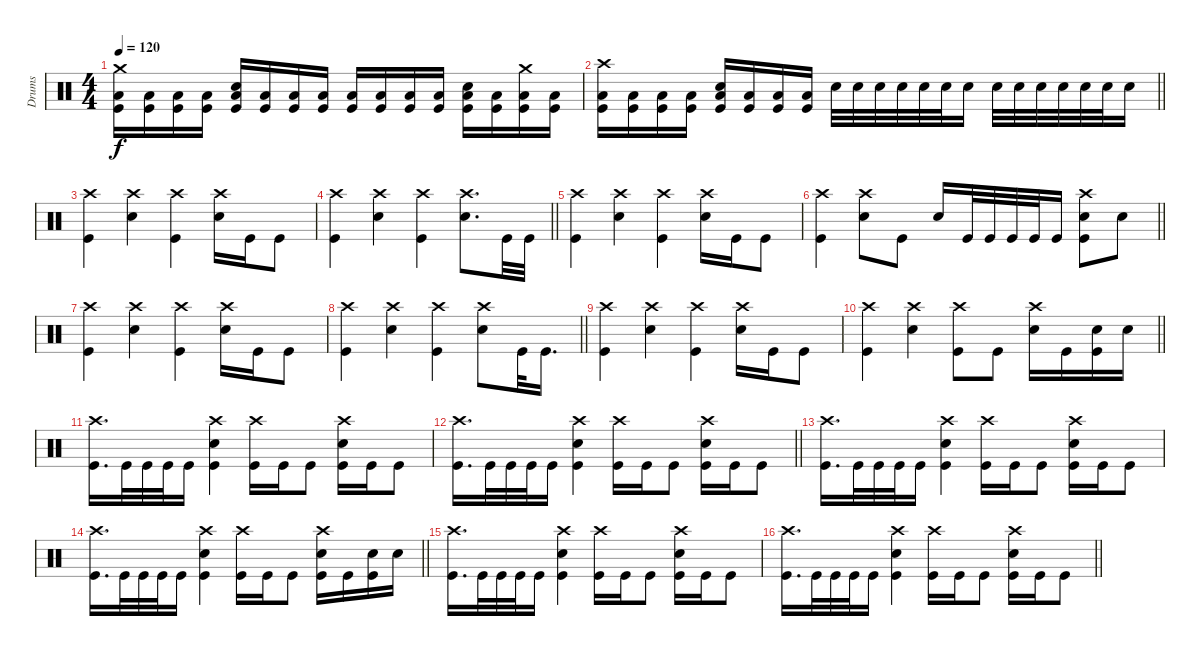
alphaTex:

\track ("Drums" "Drums") {instrument percussion}
\staff {score}
\articulation defaults
\ts (4 4)
\tempo 120
\clef neutral
\ks c
("Crash medium (hit)" "Low Floor Tom (hit)" "Kick (hit)").16{dy f} ("Low Floor Tom (hit)" "Kick (hit)").16 ("Low Floor Tom (hit)" "Kick (hit)").16 ("Low Floor Tom (hit)" "Kick (hit)").16 ("Snare (hit) 2" "Low Floor Tom (hit)" "Kick (hit)").16 ("Low Floor Tom (hit)" "Kick (hit)").16 ("Low Floor Tom (hit)" "Kick (hit)").16 ("Low Floor Tom (hit)" "Kick (hit)").16 ("Low Floor Tom (hit)" "Kick (hit)").16 ("Low Floor Tom (hit)" "Kick (hit)").16 ("Low Floor Tom (hit)" "Kick (hit)").16 ("Low Floor Tom (hit)" "Kick (hit)").16 ("Snare (hit) 2" "Low Floor Tom (hit)" "Kick (hit)").16 ("Low Floor Tom (hit)" "Kick (hit)").16 ("Crash medium (hit)" "Low Floor Tom (hit)" "Kick (hit)").16 ("Low Floor Tom (hit)" "Kick (hit)").16 |
\barLineRight lightlight
("Crash high (hit)" "Low Floor Tom (hit)" "Kick (hit)").16 ("Low Floor Tom (hit)" "Kick (hit)").16 ("Low Floor Tom (hit)" "Kick (hit)").16 ("Low Floor Tom (hit)" "Kick (hit)").16 ("Snare (hit) 2" "Low Floor Tom (hit)" "Kick (hit)").16 ("Low Floor Tom (hit)" "Kick (hit)").16 ("Low Floor Tom (hit)" "Kick (hit)").16 ("Low Floor Tom (hit)" "Kick (hit)").16 "Snare (hit) 2".32 "Snare (hit) 2".32 "Snare (hit) 2".32 "Snare (hit) 2".32 "Snare (hit) 2".32 "Snare (hit) 2".32 "Snare (hit) 2".16 "Snare (hit) 2".32 "Snare (hit) 2".32 "Snare (hit) 2".32 "Snare (hit) 2".32 "Snare (hit) 2".32 "Snare (hit) 2".32 "Snare (hit) 2".16 |
("Crash high (hit)" "Kick (hit)").4 ("Crash high (hit)" "Snare (hit) 2").4 ("Crash high (hit)" "Kick (hit)").4 ("Crash high (hit)" "Snare (hit) 2").16 "Kick (hit)".16 "Kick (hit)".8 |
\barLineRight lightlight
("Crash high (hit)" "Kick (hit)").4 ("Crash high (hit)" "Snare (hit) 2").4 ("Crash high (hit)" "Kick (hit)").4 ("Crash high (hit)" "Snare (hit) 2").8{d} "Kick (hit)".32 "Kick (hit)".32 |
("Crash high (hit)" "Kick (hit)").4 ("Crash high (hit)" "Snare (hit) 2").4 ("Crash high (hit)" "Kick (hit)").4 ("Crash high (hit)" "Snare (hit) 2").16 "Kick (hit)".16 "Kick (hit)".8 |
\barLineRight lightlight
("Crash high (hit)" "Kick (hit)").4 ("Crash high (hit)" "Snare (hit) 2").8 "Kick (hit)".8 "Snare (hit) 2".16 "Kick (hit)".32 "Kick (hit)".32 "Kick (hit)".32 "Kick (hit)".32 "Kick (hit)".16 ("Crash high (hit)" "Snare (hit) 2" "Kick (hit)").8 "Snare (hit) 2".8 |
("Crash high (hit)" "Kick (hit)").4 ("Crash high (hit)" "Snare (hit) 2").4 ("Crash high (hit)" "Kick (hit)").4 ("Crash high (hit)" "Snare (hit) 2").16 "Kick (hit)".16 "Kick (hit)".8 |
\barLineRight lightlight
("Crash high (hit)" "Kick (hit)").4 ("Crash high (hit)" "Snare (hit) 2").4 ("Crash high (hit)" "Kick (hit)").4 ("Crash high (hit)" "Snare (hit) 2").8 "Kick (hit)".32 "Kick (hit)".16{d} |
("Crash high (hit)" "Kick (hit)").4 ("Crash high (hit)" "Snare (hit) 2").4 ("Crash high (hit)" "Kick (hit)").4 ("Crash high (hit)" "Snare (hit) 2").16 "Kick (hit)".16 "Kick (hit)".8 |
\barLineRight lightlight
("Crash high (hit)" "Kick (hit)").4 ("Crash high (hit)" "Snare (hit) 2").4 ("Crash high (hit)" "Kick (hit)").8 "Kick (hit)".8 ("Crash high (hit)" "Snare (hit) 2").16 "Kick (hit)".16 ("Snare (hit) 2" "Kick (hit)").16 "Snare (hit) 2".16 |
("Crash high (hit)" "Kick (hit)").16{d} "Kick (hit)".32 "Kick (hit)".32 "Kick (hit)".32 "Kick (hit)".16 ("Crash high (hit)" "Snare (hit) 2" "Kick (hit)").4 ("Crash high (hit)" "Kick (hit)").16 "Kick (hit)".16 "Kick (hit)".8 ("Crash high (hit)" "Snare (hit) 2" "Kick (hit)").16 "Kick (hit)".16 "Kick (hit)".8 |
\barLineRight lightlight
("Crash high (hit)" "Kick (hit)").16{d} "Kick (hit)".32 "Kick (hit)".32 "Kick (hit)".32 "Kick (hit)".16 ("Crash high (hit)" "Snare (hit) 2" "Kick (hit)").4 ("Crash high (hit)" "Kick (hit)").16 "Kick (hit)".16 "Kick (hit)".8 ("Crash high (hit)" "Snare (hit) 2" "Kick (hit)").16 "Kick (hit)".16 "Kick (hit)".8 |
("Crash high (hit)" "Kick (hit)").16{d} "Kick (hit)".32 "Kick (hit)".32 "Kick (hit)".32 "Kick (hit)".16 ("Crash high (hit)" "Snare (hit) 2" "Kick (hit)").4 ("Crash high (hit)" "Kick (hit)").16 "Kick (hit)".16 "Kick (hit)".8 ("Crash high (hit)" "Snare (hit) 2" "Kick (hit)").16 "Kick (hit)".16 "Kick (hit)".8 |
\barLineRight lightlight
("Crash high (hit)" "Kick (hit)").16{d} "Kick (hit)".32 "Kick (hit)".32 "Kick (hit)".32 "Kick (hit)".16 ("Crash high (hit)" "Snare (hit) 2" "Kick (hit)").4 ("Crash high (hit)" "Kick (hit)").16 "Kick (hit)".16 "Kick (hit)".8 ("Crash high (hit)" "Snare (hit) 2" "Kick (hit)").16 "Kick (hit)".16 ("Snare (hit) 2" "Kick (hit)").16 "Snare (hit) 2".16 |
("Crash high (hit)" "Kick (hit)").16{d} "Kick (hit)".32 "Kick (hit)".32 "Kick (hit)".32 "Kick (hit)".16 ("Crash high (hit)" "Snare (hit) 2" "Kick (hit)").4 ("Crash high (hit)" "Kick (hit)").16 "Kick (hit)".16 "Kick (hit)".8 ("Crash high (hit)" "Snare (hit) 2" "Kick (hit)").16 "Kick (hit)".16 "Kick (hit)".8 |
\barLineRight lightlight
("Crash high (hit)" "Kick (hit)").16{d} "Kick (hit)".32 "Kick (hit)".32 "Kick (hit)".32 "Kick (hit)".16 ("Crash high (hit)" "Snare (hit) 2" "Kick (hit)").4 ("Crash high (hit)" "Kick (hit)").16 "Kick (hit)".16 "Kick (hit)".8 ("Crash high (hit)" "Snare (hit) 2" "Kick (hit)").16 "Kick (hit)".16 "Kick (hit)".8
